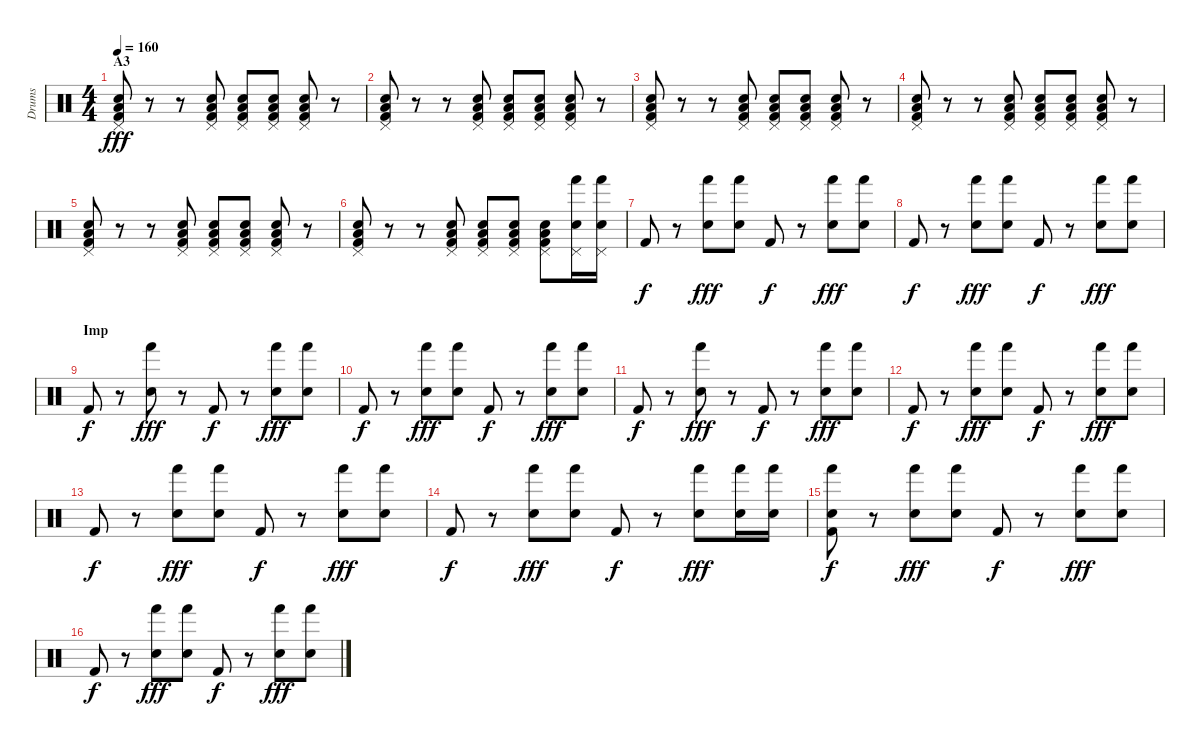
\track ("Drums" "Drums") {instrument percussion}
\staff {score}
\articulation defaults
\ts (4 4)
\section ("" "A3")
\tempo 160
\clef neutral
\ks c
("Pedal Hi-Hat (hit)" "Low Tom (hit)" "Electric Snare (hit)" "Kick (hit) 2").8{dy fff} r.8 r.8 ("Pedal Hi-Hat (hit)" "Low Tom (hit)" "Electric Snare (hit)" "Kick (hit) 2").8 ("Pedal Hi-Hat (hit)" "Low Tom (hit)" "Electric Snare (hit)" "Kick (hit) 2").8 ("Pedal Hi-Hat (hit)" "Low Tom (hit)" "Electric Snare (hit)" "Kick (hit) 2").8 ("Pedal Hi-Hat (hit)" "Low Tom (hit)" "Electric Snare (hit)" "Kick (hit) 2").8 r.8 |
("Pedal Hi-Hat (hit)" "Low Tom (hit)" "Electric Snare (hit)" "Kick (hit) 2").8 r.8 r.8 ("Pedal Hi-Hat (hit)" "Low Tom (hit)" "Electric Snare (hit)" "Kick (hit) 2").8 ("Pedal Hi-Hat (hit)" "Low Tom (hit)" "Electric Snare (hit)" "Kick (hit) 2").8 ("Pedal Hi-Hat (hit)" "Low Tom (hit)" "Electric Snare (hit)" "Kick (hit) 2").8 ("Pedal Hi-Hat (hit)" "Low Tom (hit)" "Electric Snare (hit)" "Kick (hit) 2").8 r.8 |
("Pedal Hi-Hat (hit)" "Low Tom (hit)" "Electric Snare (hit)" "Kick (hit) 2").8 r.8 r.8 ("Pedal Hi-Hat (hit)" "Low Tom (hit)" "Electric Snare (hit)" "Kick (hit) 2").8 ("Pedal Hi-Hat (hit)" "Low Tom (hit)" "Electric Snare (hit)" "Kick (hit) 2").8 ("Pedal Hi-Hat (hit)" "Low Tom (hit)" "Electric Snare (hit)" "Kick (hit) 2").8 ("Pedal Hi-Hat (hit)" "Low Tom (hit)" "Electric Snare (hit)" "Kick (hit) 2").8 r.8 |
("Pedal Hi-Hat (hit)" "Low Tom (hit)" "Electric Snare (hit)" "Kick (hit) 2").8 r.8 r.8 ("Pedal Hi-Hat (hit)" "Low Tom (hit)" "Electric Snare (hit)" "Kick (hit) 2").8 ("Pedal Hi-Hat (hit)" "Low Tom (hit)" "Electric Snare (hit)" "Kick (hit) 2").8 ("Pedal Hi-Hat (hit)" "Low Tom (hit)" "Electric Snare (hit)" "Kick (hit) 2").8 ("Pedal Hi-Hat (hit)" "Low Tom (hit)" "Electric Snare (hit)" "Kick (hit) 2").8 r.8 |
("Pedal Hi-Hat (hit)" "Low Tom (hit)" "Electric Snare (hit)" "Kick (hit) 2").8 r.8 r.8 ("Pedal Hi-Hat (hit)" "Low Tom (hit)" "Electric Snare (hit)" "Kick (hit) 2").8 ("Pedal Hi-Hat (hit)" "Low Tom (hit)" "Electric Snare (hit)" "Kick (hit) 2").8 ("Pedal Hi-Hat (hit)" "Low Tom (hit)" "Electric Snare (hit)" "Kick (hit) 2").8 ("Pedal Hi-Hat (hit)" "Low Tom (hit)" "Electric Snare (hit)" "Kick (hit) 2").8 r.8 |
("Pedal Hi-Hat (hit)" "Low Tom (hit)" "Electric Snare (hit)" "Kick (hit) 2").8 r.8 r.8 ("Pedal Hi-Hat (hit)" "Low Tom (hit)" "Electric Snare (hit)" "Kick (hit) 2").8 ("Pedal Hi-Hat (hit)" "Low Tom (hit)" "Electric Snare (hit)" "Kick (hit) 2").8 ("Pedal Hi-Hat (hit)" "Low Tom (hit)" "Electric Snare (hit)" "Kick (hit) 2").8 ("Pedal Hi-Hat (hit)" "Low Tom (hit)" "Electric Snare (hit)" "Kick (hit) 2").8 ("Pedal Hi-Hat (hit)" "Hand (hit)" "Electric Snare (hit)").16 ("Pedal Hi-Hat (hit)" "Hand (hit)" "Electric Snare (hit)").16 |
"Kick (hit) 2".8{dy f} r.8 ("Hand (hit)" "Electric Snare (hit)").8{dy fff} ("Hand (hit)" "Electric Snare (hit)").8 "Kick (hit) 2".8{dy f} r.8 ("Hand (hit)" "Electric Snare (hit)").8{dy fff} ("Hand (hit)" "Electric Snare (hit)").8 |
"Kick (hit) 2".8{dy f} r.8 ("Hand (hit)" "Electric Snare (hit)").8{dy fff} ("Hand (hit)" "Electric Snare (hit)").8 "Kick (hit) 2".8{dy f} r.8 ("Hand (hit)" "Electric Snare (hit)").8{dy fff} ("Hand (hit)" "Electric Snare (hit)").8 |
\section ("" "Imp")
"Kick (hit) 2".8{dy f} r.8 ("Hand (hit)" "Electric Snare (hit)").8{dy fff} r.8 "Kick (hit) 2".8{dy f} r.8 ("Hand (hit)" "Electric Snare (hit)").8{dy fff} ("Hand (hit)" "Electric Snare (hit)").8 |
"Kick (hit) 2".8{dy f} r.8 ("Hand (hit)" "Electric Snare (hit)").8{dy fff} ("Hand (hit)" "Electric Snare (hit)").8 "Kick (hit) 2".8{dy f} r.8 ("Hand (hit)" "Electric Snare (hit)").8{dy fff} ("Hand (hit)" "Electric Snare (hit)").8 |
"Kick (hit) 2".8{dy f} r.8 ("Hand (hit)" "Electric Snare (hit)").8{dy fff} r.8 "Kick (hit) 2".8{dy f} r.8 ("Hand (hit)" "Electric Snare (hit)").8{dy fff} ("Hand (hit)" "Electric Snare (hit)").8 |
"Kick (hit) 2".8{dy f} r.8 ("Hand (hit)" "Electric Snare (hit)").8{dy fff} ("Hand (hit)" "Electric Snare (hit)").8 "Kick (hit) 2".8{dy f} r.8 ("Hand (hit)" "Electric Snare (hit)").8{dy fff} ("Hand (hit)" "Electric Snare (hit)").8 |
"Kick (hit) 2".8{dy f} r.8 ("Hand (hit)" "Electric Snare (hit)").8{dy fff} ("Hand (hit)" "Electric Snare (hit)").8 "Kick (hit) 2".8{dy f} r.8 ("Hand (hit)" "Electric Snare (hit)").8{dy fff} ("Hand (hit)" "Electric Snare (hit)").8 |
"Kick (hit) 2".8{dy f} r.8 ("Hand (hit)" "Electric Snare (hit)").8{dy fff} ("Hand (hit)" "Electric Snare (hit)").8 "Kick (hit) 2".8{dy f} r.8 ("Hand (hit)" "Electric Snare (hit)").8{dy fff} ("Hand (hit)" "Electric Snare (hit)").16 ("Hand (hit)" "Electric Snare (hit)").16 |
("Hand (hit)" "Electric Snare (hit)" "Kick (hit) 2").8{dy f} r.8 ("Hand (hit)" "Electric Snare (hit)").8{dy fff} ("Hand (hit)" "Electric Snare (hit)").8 "Kick (hit) 2".8{dy f} r.8 ("Hand (hit)" "Electric Snare (hit)").8{dy fff} ("Hand (hit)" "Electric Snare (hit)").8 |
"Kick (hit) 2".8{dy f} r.8 ("Hand (hit)" "Electric Snare (hit)").8{dy fff} ("Hand (hit)" "Electric Snare (hit)").8 "Kick (hit) 2".8{dy f} r.8 ("Hand (hit)" "Electric Snare (hit)").8{dy fff} ("Hand (hit)" "Electric Snare (hit)").8
